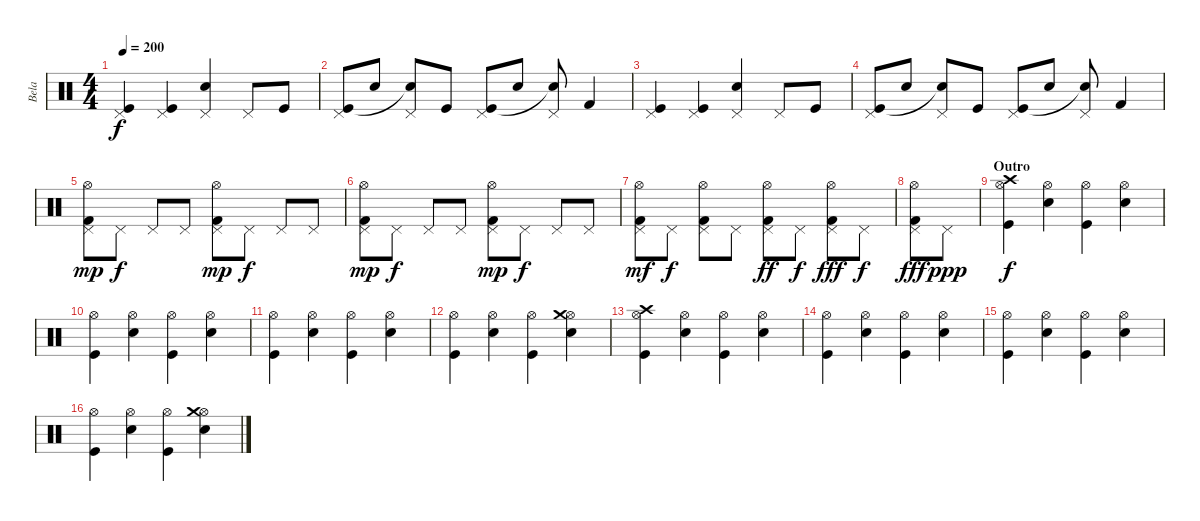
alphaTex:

\track ("Bela" "Bela") {instrument percussion}
\staff {score}
\articulation defaults
\ts (4 4)
\tempo 200
\clef neutral
\ks c
("Pedal Hi-Hat (hit)" "Kick (hit)").4{dy f} ("Pedal Hi-Hat (hit)" "Kick (hit)").4 ("Pedal Hi-Hat (hit)" "Electric Snare (hit)").4 "Pedal Hi-Hat (hit)".8 "Kick (hit)".8 |
("Pedal Hi-Hat (hit)" "Kick (hit)").8 "Electric Snare (hit)".8 ("Pedal Hi-Hat (hit)" "Electric Snare (hit)"{t}).8 "Kick (hit)".8 ("Pedal Hi-Hat (hit)" "Kick (hit)").8 "Electric Snare (hit)".8 ("Pedal Hi-Hat (hit)" "Electric Snare (hit)"{t}).8 "Kick (hit) 2".4 |
("Pedal Hi-Hat (hit)" "Kick (hit)").4 ("Pedal Hi-Hat (hit)" "Kick (hit)").4 ("Pedal Hi-Hat (hit)" "Electric Snare (hit)").4 "Pedal Hi-Hat (hit)".8 "Kick (hit)".8 |
("Pedal Hi-Hat (hit)" "Kick (hit)").8 "Electric Snare (hit)".8 ("Pedal Hi-Hat (hit)" "Electric Snare (hit)"{t}).8 "Kick (hit)".8 ("Pedal Hi-Hat (hit)" "Kick (hit)").8 "Electric Snare (hit)".8 ("Pedal Hi-Hat (hit)" "Electric Snare (hit)"{t}).8 "Kick (hit) 2".4 |
("Pedal Hi-Hat (hit)" "Hi-Hat (open)" "Kick (hit) 2").8{dy mp} "Pedal Hi-Hat (hit)".8{dy f} "Pedal Hi-Hat (hit)".8 "Pedal Hi-Hat (hit)".8 ("Pedal Hi-Hat (hit)" "Hi-Hat (open)" "Kick (hit) 2").8{dy mp} "Pedal Hi-Hat (hit)".8{dy f} "Pedal Hi-Hat (hit)".8 "Pedal Hi-Hat (hit)".8 |
("Pedal Hi-Hat (hit)" "Hi-Hat (open)" "Kick (hit) 2").8{dy mp} "Pedal Hi-Hat (hit)".8{dy f} "Pedal Hi-Hat (hit)".8 "Pedal Hi-Hat (hit)".8 ("Pedal Hi-Hat (hit)" "Hi-Hat (open)" "Kick (hit) 2").8{dy mp} "Pedal Hi-Hat (hit)".8{dy f} "Pedal Hi-Hat (hit)".8 "Pedal Hi-Hat (hit)".8 |
("Pedal Hi-Hat (hit)" "Hi-Hat (open)" "Kick (hit) 2").8{dy mf} "Pedal Hi-Hat (hit)".8{dy f} ("Pedal Hi-Hat (hit)" "Hi-Hat (open)" "Kick (hit) 2").8 "Pedal Hi-Hat (hit)".8 ("Pedal Hi-Hat (hit)" "Hi-Hat (open)" "Kick (hit) 2").8{dy ff} "Pedal Hi-Hat (hit)".8{dy f} ("Pedal Hi-Hat (hit)" "Hi-Hat (open)" "Kick (hit) 2").8{dy fff} "Pedal Hi-Hat (hit)".8{dy f} |
("Pedal Hi-Hat (hit)" "Hi-Hat (open)" "Kick (hit) 2").8{dy fff} "Pedal Hi-Hat (hit)".8{dy ppp} |
\section ("" "Outro")
("Hi-Hat (open)" "Crash high (hit)" "Kick (hit)").4{dy f} ("Hi-Hat (open)" "Electric Snare (hit)").4 ("Hi-Hat (open)" "Kick (hit)").4 ("Hi-Hat (open)" "Electric Snare (hit)").4 |
("Hi-Hat (open)" "Kick (hit)").4 ("Hi-Hat (open)" "Electric Snare (hit)").4 ("Hi-Hat (open)" "Kick (hit)").4 ("Hi-Hat (open)" "Electric Snare (hit)").4 |
("Hi-Hat (open)" "Kick (hit)").4 ("Hi-Hat (open)" "Electric Snare (hit)").4 ("Hi-Hat (open)" "Kick (hit)").4 ("Hi-Hat (open)" "Electric Snare (hit)").4 |
("Hi-Hat (open)" "Kick (hit)").4 ("Hi-Hat (open)" "Electric Snare (hit)").4 ("Hi-Hat (open)" "Kick (hit)").4 ("Hi-Hat (open)" "Crash medium (hit)" "Electric Snare (hit)").4 |
("Hi-Hat (open)" "Crash high (hit)" "Kick (hit)").4 ("Hi-Hat (open)" "Electric Snare (hit)").4 ("Hi-Hat (open)" "Kick (hit)").4 ("Hi-Hat (open)" "Electric Snare (hit)").4 |
("Hi-Hat (open)" "Kick (hit)").4 ("Hi-Hat (open)" "Electric Snare (hit)").4 ("Hi-Hat (open)" "Kick (hit)").4 ("Hi-Hat (open)" "Electric Snare (hit)").4 |
("Hi-Hat (open)" "Kick (hit)").4 ("Hi-Hat (open)" "Electric Snare (hit)").4 ("Hi-Hat (open)" "Kick (hit)").4 ("Hi-Hat (open)" "Electric Snare (hit)").4 |
("Hi-Hat (open)" "Kick (hit)").4 ("Hi-Hat (open)" "Electric Snare (hit)").4 ("Hi-Hat (open)" "Kick (hit)").4 ("Hi-Hat (open)" "Crash medium (hit)" "Electric Snare (hit)").4
